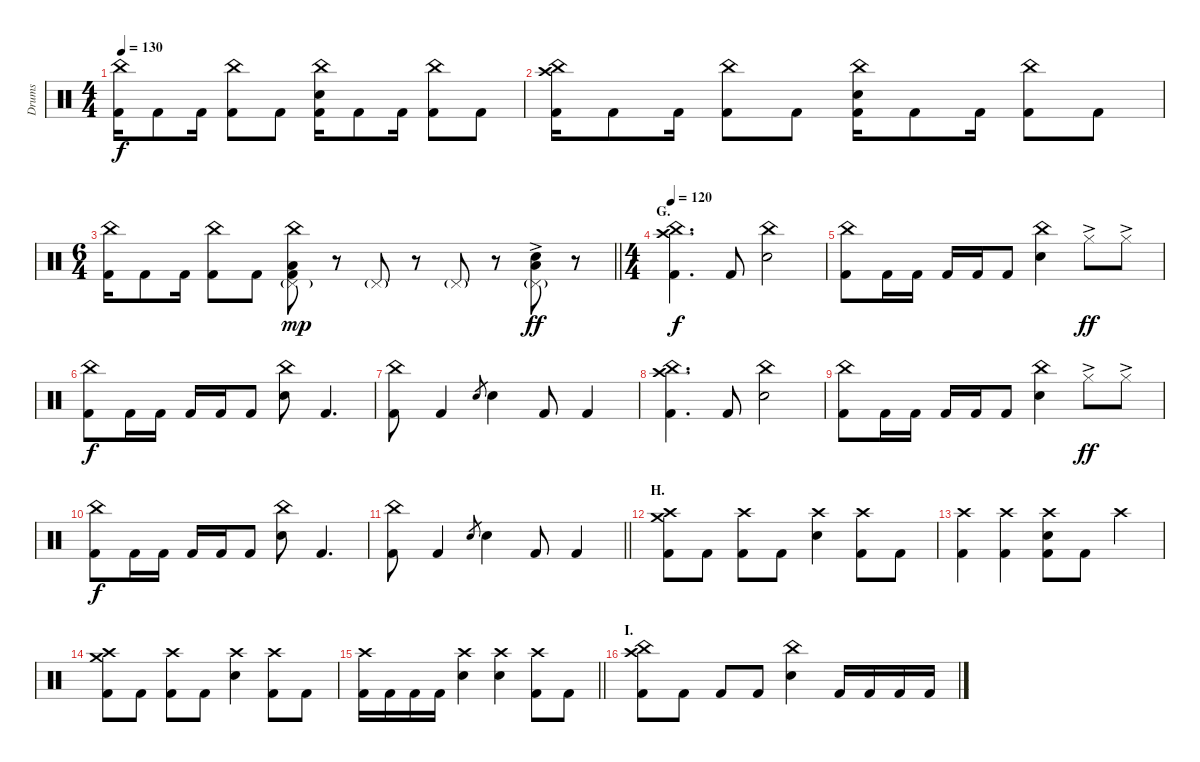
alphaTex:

\track ("Drums" "Drums") {instrument percussion}
\staff {score}
\articulation defaults
\ts (4 4)
\tempo 130
\clef neutral
\ks c
("China (hit)" "Kick (hit) 2").16{dy f} "Kick (hit) 2".8 "Kick (hit) 2".16 ("China (hit)" "Kick (hit) 2").8 "Kick (hit) 2".8 ("China (hit)" "Electric Snare (hit)" "Kick (hit) 2").16 "Kick (hit) 2".8 "Kick (hit) 2".16 ("China (hit)" "Kick (hit) 2").8 "Kick (hit) 2".8 |
("China (hit)" "Crash high (hit)" "Kick (hit) 2").16 "Kick (hit) 2".8 "Kick (hit) 2".16 ("China (hit)" "Kick (hit) 2").8 "Kick (hit) 2".8 ("China (hit)" "Electric Snare (hit)" "Kick (hit) 2").16 "Kick (hit) 2".8 "Kick (hit) 2".16 ("China (hit)" "Kick (hit) 2").8 "Kick (hit) 2".8 |
\ts (6 4)
\barLineRight lightlight
("China (hit)" "Kick (hit) 2").16 "Kick (hit) 2".8 "Kick (hit) 2".16 ("China (hit)" "Kick (hit) 2").8 "Kick (hit) 2".8 ("China (hit)" "Pedal Hi-Hat (hit)"{g} "Low Floor Tom (hit)" "Kick (hit) 2").8{dy mp} r.8 "Pedal Hi-Hat (hit)"{g}.8 r.8 "Pedal Hi-Hat (hit)"{g}.8 r.8 ("Pedal Hi-Hat (hit)"{g} "Electric Snare (hit)" "Low Floor Tom (hit)"{ac}).8{dy ff} r.8 |
\ts (4 4)
\section ("" "G.")
\tempo 120
("China (hit)" "Crash high (hit)" "Kick (hit) 2").4{d dy f} "Kick (hit) 2".8 ("China (hit)" "Electric Snare (hit)").2 |
("China (hit)" "Kick (hit) 2").8 "Kick (hit) 2".16 "Kick (hit) 2".16 "Kick (hit) 2".16 "Kick (hit) 2".16 "Kick (hit) 2".8 ("China (hit)" "Electric Snare (hit)").4 "Hi-Hat (closed)"{ac}.8{dy ff} "Hi-Hat (closed)"{ac}.8 |
("China (hit)" "Kick (hit) 2").8{dy f} "Kick (hit) 2".16 "Kick (hit) 2".16 "Kick (hit) 2".16 "Kick (hit) 2".16 "Kick (hit) 2".8 ("China (hit)" "Electric Snare (hit)").8 "Kick (hit) 2".4{d} |
("China (hit)" "Kick (hit) 2").8 "Kick (hit) 2".4 "Electric Snare (hit)".8{gr} "Electric Snare (hit)".4 "Kick (hit) 2".8 "Kick (hit) 2".4 |
("China (hit)" "Crash high (hit)" "Kick (hit) 2").4{d} "Kick (hit) 2".8 ("China (hit)" "Electric Snare (hit)").2 |
("China (hit)" "Kick (hit) 2").8 "Kick (hit) 2".16 "Kick (hit) 2".16 "Kick (hit) 2".16 "Kick (hit) 2".16 "Kick (hit) 2".8 ("China (hit)" "Electric Snare (hit)").4 "Hi-Hat (closed)"{ac}.8{dy ff} "Hi-Hat (closed)"{ac}.8 |
("China (hit)" "Kick (hit) 2").8{dy f} "Kick (hit) 2".16 "Kick (hit) 2".16 "Kick (hit) 2".16 "Kick (hit) 2".16 "Kick (hit) 2".8 ("China (hit)" "Electric Snare (hit)").8 "Kick (hit) 2".4{d} |
\barLineRight lightlight
("China (hit)" "Kick (hit) 2").8 "Kick (hit) 2".4 "Electric Snare (hit)".8{gr} "Electric Snare (hit)".4 "Kick (hit) 2".8 "Kick (hit) 2".4 |
\section ("" "H.")
("Crash medium (hit)" "Crash high (hit)" "Kick (hit) 2").8 "Kick (hit) 2".8 ("Crash high (hit)" "Kick (hit) 2").8 "Kick (hit) 2".8 ("Crash high (hit)" "Electric Snare (hit)").4 ("Crash high (hit)" "Kick (hit) 2").8 "Kick (hit) 2".8 |
("Crash high (hit)" "Kick (hit) 2").4 ("Crash high (hit)" "Kick (hit) 2").4 ("Crash high (hit)" "Electric Snare (hit)" "Kick (hit) 2").8 "Kick (hit) 2".8 "Crash high (hit)".4 |
("Crash medium (hit)" "Crash high (hit)" "Kick (hit) 2").8 "Kick (hit) 2".8 ("Crash high (hit)" "Kick (hit) 2").8 "Kick (hit) 2".8 ("Crash high (hit)" "Electric Snare (hit)").4 ("Crash high (hit)" "Kick (hit) 2").8 "Kick (hit) 2".8 |
\barLineRight lightlight
("Crash high (hit)" "Kick (hit) 2").16 "Kick (hit) 2".16 "Kick (hit) 2".16 "Kick (hit) 2".16 ("Crash high (hit)" "Electric Snare (hit)").4 ("Crash high (hit)" "Electric Snare (hit)").4 ("Crash high (hit)" "Kick (hit) 2").8 "Kick (hit) 2".8 |
\section ("" "I.")
("China (hit)" "Crash high (hit)" "Kick (hit) 2").8 "Kick (hit) 2".8 "Kick (hit) 2".8 "Kick (hit) 2".8 ("China (hit)" "Electric Snare (hit)").4 "Kick (hit) 2".16 "Kick (hit) 2".16 "Kick (hit) 2".16 "Kick (hit) 2".16
